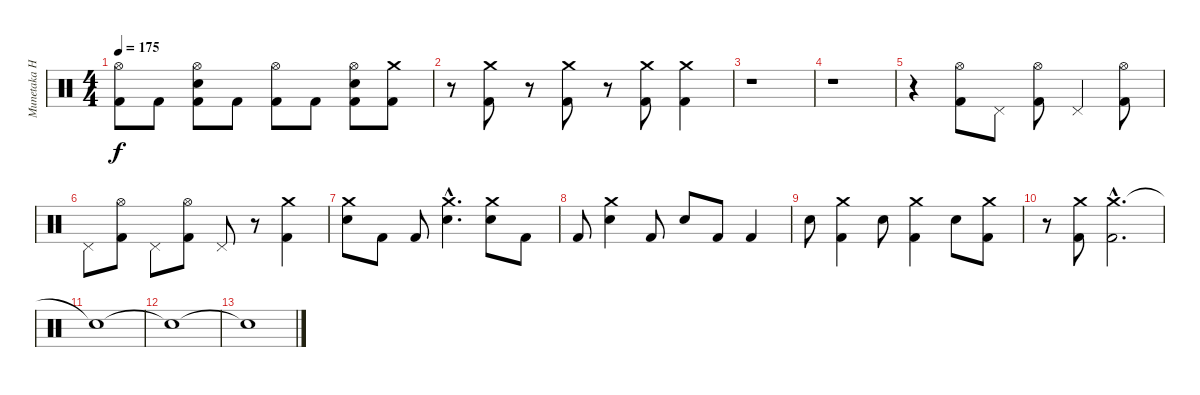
\track ("Munetaka Higuchi" "Munetaka H") {instrument percussion}
\staff {score}
\articulation defaults
\ts (4 4)
\tempo 175
\clef neutral
\ks c
("Hi-Hat (open)" "Kick (hit) 2").8{dy f} "Kick (hit) 2".8 ("Hi-Hat (open)" "Electric Snare (hit)" "Kick (hit) 2").8 "Kick (hit) 2".8 ("Hi-Hat (open)" "Kick (hit) 2").8 "Kick (hit) 2".8 ("Hi-Hat (open)" "Electric Snare (hit)" "Kick (hit) 2").8 ("Crash medium (hit)" "Kick (hit) 2").8 |
r.8 ("Crash medium (hit)" "Kick (hit) 2").8 r.8 ("Crash medium (hit)" "Kick (hit) 2").8 r.8 ("Crash medium (hit)" "Kick (hit) 2").8 ("Crash medium (hit)" "Kick (hit) 2").4 |
r.1 |
r.1 |
r.4 ("Hi-Hat (open)" "Kick (hit) 2").8 "Pedal Hi-Hat (hit)".8 ("Hi-Hat (open)" "Kick (hit) 2").8 "Pedal Hi-Hat (hit)".4 ("Hi-Hat (open)" "Kick (hit) 2").8 |
"Pedal Hi-Hat (hit)".8 ("Hi-Hat (open)" "Kick (hit) 2").8 "Pedal Hi-Hat (hit)".8 ("Hi-Hat (open)" "Kick (hit) 2").8 "Pedal Hi-Hat (hit)".8 r.8 ("Crash medium (hit)" "Kick (hit) 2").4 |
("Crash medium (hit)" "Electric Snare (hit)").8 "Kick (hit) 2".8 "Kick (hit) 2".8 ("Crash medium (hit)"{hac} "Electric Snare (hit)"{hac}).4{d} ("Crash medium (hit)" "Electric Snare (hit)").8 "Kick (hit) 2".8 |
"Kick (hit) 2".8 ("Crash medium (hit)" "Electric Snare (hit)").4 "Kick (hit) 2".8 "Electric Snare (hit)".8 "Kick (hit) 2".8 "Kick (hit) 2".4 |
"Electric Snare (hit)".8 ("Crash medium (hit)" "Kick (hit) 2").4 "Electric Snare (hit)".8 ("Crash medium (hit)" "Kick (hit) 2").4 "Electric Snare (hit)".8 ("Crash medium (hit)" "Kick (hit) 2").8 |
r.8 ("Crash medium (hit)" "Kick (hit) 2").8 ("Crash medium (hit)"{hac} "Kick (hit) 2"{hac}).2{d} |
"Snare (hit)"{t}.1 |
"Snare (hit)"{t}.1 |
"Snare (hit)"{t}.1
